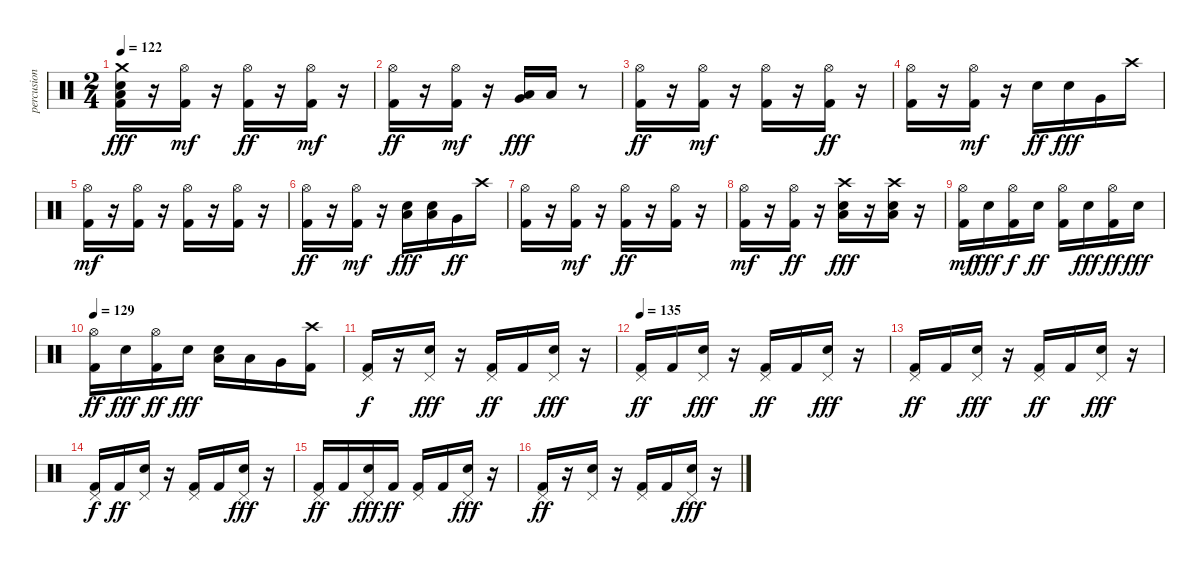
\track ("percusion" "percusion") {instrument percussion}
\staff {score}
\articulation defaults
\ts (2 4)
\tempo 122
\clef neutral
\ks c
("Kick (hit) 2" "Electric Snare (hit)" "Crash medium (hit)" "Low Floor Tom (hit)").16{dy fff} r.16 ("Kick (hit) 2" "Hi-Hat (open)").16{dy mf} r.16 ("Kick (hit) 2" "Hi-Hat (open)").16{dy ff} r.16 ("Kick (hit) 2" "Hi-Hat (open)").16{dy mf} r.16 |
("Kick (hit) 2" "Hi-Hat (open)").16{dy ff} r.16 ("Kick (hit) 2" "Hi-Hat (open)").16{dy mf} r.16 ("Very Low Tom (hit)" "Low Floor Tom (hit)").16{dy fff} "Low Floor Tom (hit)".16 r.8 |
("Kick (hit) 2" "Hi-Hat (open)").16{dy ff} r.16 ("Kick (hit) 2" "Hi-Hat (open)").16{dy mf} r.16 ("Kick (hit) 2" "Hi-Hat (open)").16 r.16 ("Kick (hit) 2" "Hi-Hat (open)").16{dy ff} r.16 |
("Kick (hit) 2" "Hi-Hat (open)").16 r.16 ("Kick (hit) 2" "Hi-Hat (open)").16{dy mf} r.16 "Electric Snare (hit)".16{dy ff} "Electric Snare (hit)".16{dy fff} "Very Low Tom (hit)".16 "Crash high (hit)".16 |
("Kick (hit) 2" "Hi-Hat (open)").16{dy mf} r.16 ("Kick (hit) 2" "Hi-Hat (open)").16 r.16 ("Kick (hit) 2" "Hi-Hat (open)").16 r.16 ("Kick (hit) 2" "Hi-Hat (open)").16 r.16 |
("Kick (hit) 2" "Hi-Hat (open)").16{dy ff} r.16 ("Kick (hit) 2" "Hi-Hat (open)").16{dy mf} r.16 ("Electric Snare (hit)" "Low Floor Tom (hit)").16{dy fff} ("Electric Snare (hit)" "Low Floor Tom (hit)").16 "Very Low Tom (hit)".16{dy ff} "Crash high (hit)".16 |
("Kick (hit) 2" "Hi-Hat (open)").16 r.16 ("Kick (hit) 2" "Hi-Hat (open)").16{dy mf} r.16 ("Kick (hit) 2" "Hi-Hat (open)").16{dy ff} r.16 ("Kick (hit) 2" "Hi-Hat (open)").16 r.16 |
("Kick (hit) 2" "Hi-Hat (open)").16{dy mf} r.16 ("Kick (hit) 2" "Hi-Hat (open)").16{dy ff} r.16 ("Electric Snare (hit)" "Crash high (hit)" "Low Floor Tom (hit)").16{dy fff} r.16 ("Electric Snare (hit)" "Crash high (hit)" "Low Floor Tom (hit)").16 r.16 |
("Kick (hit) 2" "Hi-Hat (open)").16{dy mf} "Electric Snare (hit)".16{dy fff} ("Kick (hit) 2" "Hi-Hat (open)").16{dy f} "Electric Snare (hit)".16{dy ff} ("Kick (hit) 2" "Hi-Hat (open)").16 "Electric Snare (hit)".16{dy fff} ("Kick (hit) 2" "Hi-Hat (open)").16{dy ff} "Electric Snare (hit)".16{dy fff} |
\tempo 129
("Kick (hit) 2" "Hi-Hat (open)").16{dy ff} "Electric Snare (hit)".16{dy fff} ("Kick (hit) 2" "Hi-Hat (open)").16{dy ff} "Electric Snare (hit)".16{dy fff} ("Electric Snare (hit)" "Low Floor Tom (hit)").16 "Low Floor Tom (hit)".16 "Very Low Tom (hit)".16 ("Kick (hit) 2" "Crash high (hit)").16 |
("Kick (hit) 2" "Pedal Hi-Hat (hit)").16{dy f} r.16 ("Electric Snare (hit)" "Pedal Hi-Hat (hit)").16{dy fff} r.16 ("Kick (hit) 2" "Pedal Hi-Hat (hit)").16{dy ff} "Kick (hit) 2".16 ("Electric Snare (hit)" "Pedal Hi-Hat (hit)").16{dy fff} r.16 |
\tempo 135
("Kick (hit) 2" "Pedal Hi-Hat (hit)").16{dy ff} "Kick (hit) 2".16 ("Electric Snare (hit)" "Pedal Hi-Hat (hit)").16{dy fff} r.16 ("Kick (hit) 2" "Pedal Hi-Hat (hit)").16{dy ff} "Kick (hit) 2".16 ("Electric Snare (hit)" "Pedal Hi-Hat (hit)").16{dy fff} r.16 |
("Kick (hit) 2" "Pedal Hi-Hat (hit)").16{dy ff} "Kick (hit) 2".16 ("Electric Snare (hit)" "Pedal Hi-Hat (hit)").16{dy fff} r.16 ("Kick (hit) 2" "Pedal Hi-Hat (hit)").16{dy ff} "Kick (hit) 2".16 ("Electric Snare (hit)" "Pedal Hi-Hat (hit)").16{dy fff} r.16 |
("Kick (hit) 2" "Pedal Hi-Hat (hit)").16{dy f} "Kick (hit) 2".16{dy ff} ("Electric Snare (hit)" "Pedal Hi-Hat (hit)").16 r.16 ("Kick (hit) 2" "Pedal Hi-Hat (hit)").16 "Kick (hit) 2".16 ("Electric Snare (hit)" "Pedal Hi-Hat (hit)").16{dy fff} r.16 |
("Kick (hit) 2" "Pedal Hi-Hat (hit)").16{dy ff} "Kick (hit) 2".16 ("Electric Snare (hit)" "Pedal Hi-Hat (hit)").16{dy fff} "Kick (hit) 2".16{dy ff} ("Kick (hit) 2" "Pedal Hi-Hat (hit)").16 "Kick (hit) 2".16 ("Electric Snare (hit)" "Pedal Hi-Hat (hit)").16{dy fff} r.16 |
("Kick (hit) 2" "Pedal Hi-Hat (hit)").16{dy ff} r.16 ("Electric Snare (hit)" "Pedal Hi-Hat (hit)").16 r.16 ("Kick (hit) 2" "Pedal Hi-Hat (hit)").16 "Kick (hit) 2".16 ("Electric Snare (hit)" "Pedal Hi-Hat (hit)").16{dy fff} r.16
